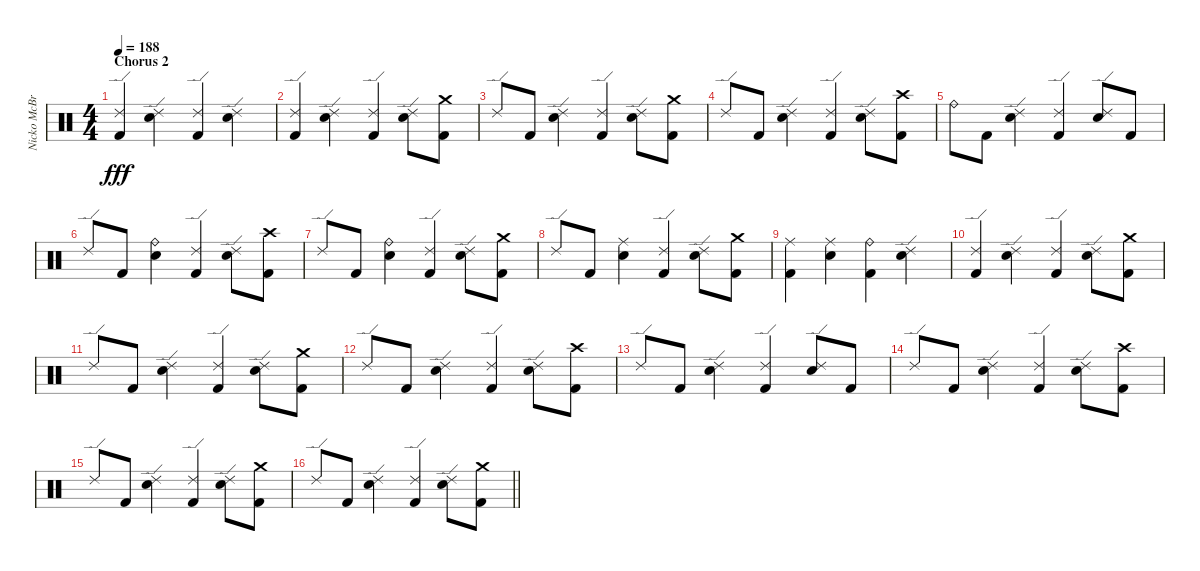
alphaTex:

\track ("Nicko McBrain" "Nicko McBr") {instrument percussion}
\staff {score}
\articulation defaults
\ts (4 4)
\section ("" "Chorus 2")
\tempo 188
\clef neutral
\ks c
("Ride (edge) 2" "Kick (hit) 2").4{dy fff} ("Ride (edge) 2" "Electric Snare (hit)").4 ("Ride (edge) 2" "Kick (hit) 2").4 ("Ride (edge) 2" "Electric Snare (hit)").4 |
("Ride (edge) 2" "Kick (hit) 2").4 ("Ride (edge) 2" "Electric Snare (hit)").4 ("Ride (edge) 2" "Kick (hit) 2").4 ("Ride (edge) 2" "Electric Snare (hit)").8 ("Crash medium (hit)" "Kick (hit) 2").8 |
"Ride (edge) 2".8 "Kick (hit) 2".8 ("Ride (edge) 2" "Electric Snare (hit)").4 ("Ride (edge) 2" "Kick (hit) 2").4 ("Ride (edge) 2" "Electric Snare (hit)").8 ("Crash medium (hit)" "Kick (hit) 2").8 |
"Ride (edge) 2".8 "Kick (hit) 2".8 ("Ride (edge) 2" "Electric Snare (hit)").4 ("Ride (edge) 2" "Kick (hit) 2").4 ("Ride (edge) 2" "Electric Snare (hit)").8 ("Crash high (hit)" "Kick (hit) 2").8 |
"Ride (bell)".8 "Kick (hit) 2".8 ("Ride (edge) 2" "Electric Snare (hit)").4 ("Ride (edge) 2" "Kick (hit) 2").4 ("Ride (edge) 2" "Electric Snare (hit)").8 "Kick (hit) 2".8 |
"Ride (edge) 2".8 "Kick (hit) 2".8 ("Ride (bell)" "Electric Snare (hit)").4 ("Ride (edge) 2" "Kick (hit) 2").4 ("Ride (edge) 2" "Electric Snare (hit)").8 ("Crash high (hit)" "Kick (hit) 2").8 |
"Ride (edge) 2".8 "Kick (hit) 2".8 ("Ride (bell)" "Electric Snare (hit)").4 ("Ride (edge) 2" "Kick (hit) 2").4 ("Ride (edge) 2" "Electric Snare (hit)").8 ("Crash medium (hit)" "Kick (hit) 2").8 |
"Ride (edge) 2".8 "Kick (hit) 2".8 ("Ride (middle)" "Electric Snare (hit)").4 ("Ride (edge) 2" "Kick (hit) 2").4 ("Ride (edge) 2" "Electric Snare (hit)").8 ("Crash medium (hit)" "Kick (hit) 2").8 |
("Ride (middle)" "Kick (hit) 2").4 ("Ride (middle)" "Electric Snare (hit)").4 ("Ride (bell)" "Kick (hit) 2").4 ("Ride (edge) 2" "Electric Snare (hit)").4 |
("Ride (edge) 2" "Kick (hit) 2").4 ("Ride (edge) 2" "Electric Snare (hit)").4 ("Ride (edge) 2" "Kick (hit) 2").4 ("Ride (edge) 2" "Electric Snare (hit)").8 ("Crash medium (hit)" "Kick (hit) 2").8 |
"Ride (edge) 2".8 "Kick (hit) 2".8 ("Ride (edge) 2" "Electric Snare (hit)").4 ("Ride (edge) 2" "Kick (hit) 2").4 ("Ride (edge) 2" "Electric Snare (hit)").8 ("Crash medium (hit)" "Kick (hit) 2").8 |
"Ride (edge) 2".8 "Kick (hit) 2".8 ("Ride (edge) 2" "Electric Snare (hit)").4 ("Ride (edge) 2" "Kick (hit) 2").4 ("Ride (edge) 2" "Electric Snare (hit)").8 ("Crash high (hit)" "Kick (hit) 2").8 |
"Ride (edge) 2".8 "Kick (hit) 2".8 ("Ride (edge) 2" "Electric Snare (hit)").4 ("Ride (edge) 2" "Kick (hit) 2").4 ("Ride (edge) 2" "Electric Snare (hit)").8 "Kick (hit) 2".8 |
"Ride (edge) 2".8 "Kick (hit) 2".8 ("Ride (edge) 2" "Electric Snare (hit)").4 ("Ride (edge) 2" "Kick (hit) 2").4 ("Ride (edge) 2" "Electric Snare (hit)").8 ("Crash high (hit)" "Kick (hit) 2").8 |
"Ride (edge) 2".8 "Kick (hit) 2".8 ("Ride (edge) 2" "Electric Snare (hit)").4 ("Ride (edge) 2" "Kick (hit) 2").4 ("Ride (edge) 2" "Electric Snare (hit)").8 ("Crash medium (hit)" "Kick (hit) 2").8 |
\barLineRight lightlight "Ride (edge) 2".8 "Kick (hit) 2".8
("Ride (edge) 2" "Electric Snare (hit)").4 ("Ride (edge) 2" "Kick (hit) 2").4 ("Ride (edge) 2" "Electric Snare (hit)").8 ("Crash medium (hit)" "Kick (hit) 2").8
